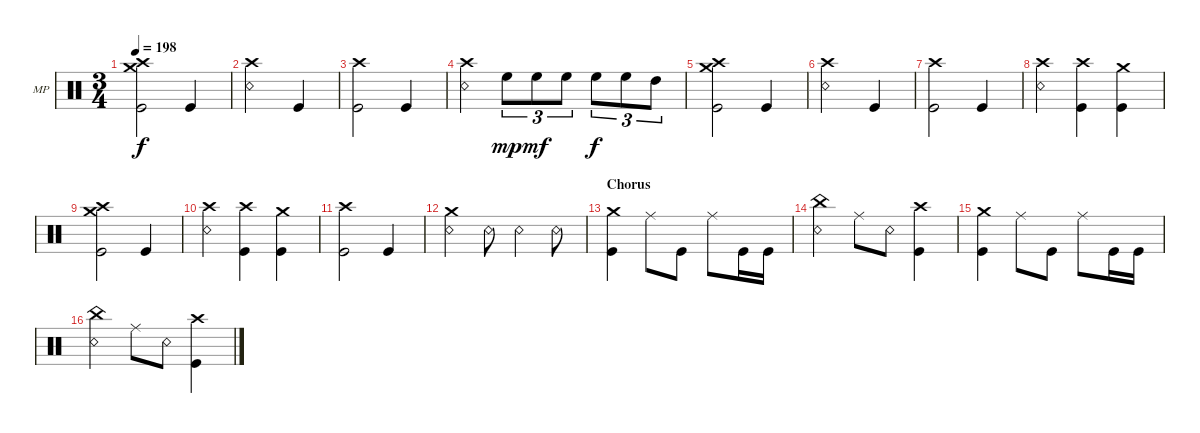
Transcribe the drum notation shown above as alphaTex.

\defaultSystemsLayout 4
\bracketExtendMode groupsimilarinstruments
\firstSystemTrackNameOrientation horizontal
\otherSystemsTrackNameOrientation horizontal
\track ("Mike Portnoy" "MP") {instrument percussion}
\staff {score}
\articulation defaults
\ts (3 4)
\tempo 198
\clef neutral
\ks c
("Crash medium (hit)" "Crash high (hit)" "Kick (hit)").2{dy f} "Kick (hit)".4 |
("Crash high (hit)" "Snare (rim shot)").2 "Kick (hit)".4 |
("Crash high (hit)" "Kick (hit)").2 "Kick (hit)".4 |
("Crash high (hit)" "Snare (rim shot)").4 "High Floor Tom (hit)".8{tu (3 2) dy mp} "High Floor Tom (hit)".8{tu (3 2) dy mf} "High Floor Tom (hit)".8{tu (3 2)} "High Floor Tom (hit)".8{tu (3 2) dy f} "High Floor Tom (hit)".8{tu (3 2)} "High Tom (hit)".8{tu (3 2)} |
("Crash medium (hit)" "Crash high (hit)" "Kick (hit)").2 "Kick (hit)".4 |
("Crash high (hit)" "Snare (rim shot)").2 "Kick (hit)".4 |
("Crash high (hit)" "Kick (hit)").2 "Kick (hit)".4 |
("Crash high (hit)" "Snare (rim shot)").4 ("Crash high (hit)" "Kick (hit)").4 ("Crash medium (hit)" "Kick (hit)").4 |
("Crash medium (hit)" "Crash high (hit)" "Kick (hit)").2 "Kick (hit)".4 |
("Crash high (hit)" "Snare (rim shot)").4 ("Crash high (hit)" "Kick (hit)").4 ("Crash medium (hit)" "Kick (hit)").4 |
("Crash high (hit)" "Kick (hit)").2 "Kick (hit)".4 |
("Crash medium (hit)" "Snare (rim shot)").4 "Snare (rim shot)".8 "Snare (rim shot)".4 "Snare (rim shot)".8 |
\section ("" "Chorus")
("Crash medium (hit)" "Kick (hit)").4 "Ride (middle)".8 "Kick (hit)".8 "Ride (middle)".8 "Kick (hit)".16 "Kick (hit)".16 |
("China (hit)" "Snare (rim shot)").4 "Ride (middle)".8 "Snare (rim shot)".8 ("Crash high (hit)" "Kick (hit)").4 |
("Crash medium (hit)" "Kick (hit)").4 "Ride (middle)".8 "Kick (hit)".8 "Ride (middle)".8 "Kick (hit)".16 "Kick (hit)".16 |
("China (hit)" "Snare (rim shot)").4 "Ride (middle)".8 "Snare (rim shot)".8 ("Crash high (hit)" "Kick (hit)").4
